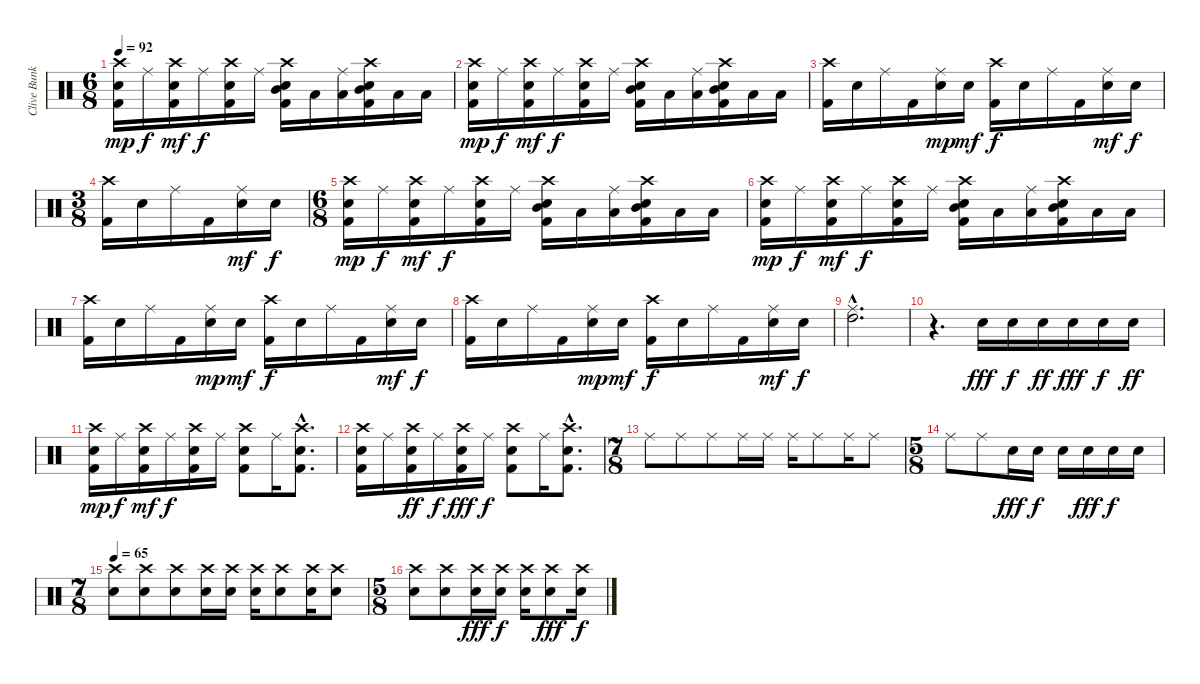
\track ("Clive Bunker (Drums)" "Clive Bunk") {instrument percussion}
\staff {score}
\articulation defaults
\ts (6 8)
\tempo 92
\clef neutral
\ks c
("Crash high (hit)" "Electric Snare (hit)" "Kick (hit) 2").16{dy mp} "Ride (middle)".16{dy f} ("Crash high (hit)" "Electric Snare (hit)" "Kick (hit) 2").16{dy mf} "Ride (middle)".16{dy f} ("Crash high (hit)" "Electric Snare (hit)" "Kick (hit) 2").16 "Ride (middle)".16 ("Crash high (hit)" "Electric Snare (hit)" "Mid Tom (hit)" "Kick (hit) 2").16 "Low Tom (hit)".16 ("Ride (middle)" "Low Tom (hit)").16 ("Crash high (hit)" "Electric Snare (hit)" "Mid Tom (hit)" "Kick (hit) 2").16 "Low Tom (hit)".16 "Low Tom (hit)".16 |
("Crash high (hit)" "Electric Snare (hit)" "Kick (hit) 2").16{dy mp} "Ride (middle)".16{dy f} ("Crash high (hit)" "Electric Snare (hit)" "Kick (hit) 2").16{dy mf} "Ride (middle)".16{dy f} ("Crash high (hit)" "Electric Snare (hit)" "Kick (hit) 2").16 "Ride (middle)".16 ("Crash high (hit)" "Electric Snare (hit)" "Mid Tom (hit)" "Kick (hit) 2").16 "Low Tom (hit)".16 ("Ride (middle)" "Low Tom (hit)").16 ("Crash high (hit)" "Electric Snare (hit)" "Mid Tom (hit)" "Kick (hit) 2").16 "Low Tom (hit)".16 "Low Tom (hit)".16 |
("Crash high (hit)" "Kick (hit) 2").16 "Electric Snare (hit)".16 "Ride (middle)".16 "Kick (hit) 2".16 ("Ride (middle)" "Electric Snare (hit)").16{dy mp} "Electric Snare (hit)".16{dy mf} ("Crash high (hit)" "Kick (hit) 2").16{dy f} "Electric Snare (hit)".16 "Ride (middle)".16 "Kick (hit) 2".16 ("Ride (middle)" "Electric Snare (hit)").16{dy mf} "Electric Snare (hit)".16{dy f} |
\ts (3 8)
("Crash high (hit)" "Kick (hit) 2").16 "Electric Snare (hit)".16 "Ride (middle)".16 "Kick (hit) 2".16 ("Ride (middle)" "Electric Snare (hit)").16{dy mf} "Electric Snare (hit)".16{dy f} |
\ts (6 8)
("Crash high (hit)" "Electric Snare (hit)" "Kick (hit) 2").16{dy mp} "Ride (middle)".16{dy f} ("Crash high (hit)" "Electric Snare (hit)" "Kick (hit) 2").16{dy mf} "Ride (middle)".16{dy f} ("Crash high (hit)" "Electric Snare (hit)" "Kick (hit) 2").16 "Ride (middle)".16 ("Crash high (hit)" "Electric Snare (hit)" "Mid Tom (hit)" "Kick (hit) 2").16 "Low Tom (hit)".16 ("Ride (middle)" "Low Tom (hit)").16 ("Crash high (hit)" "Electric Snare (hit)" "Mid Tom (hit)" "Kick (hit) 2").16 "Low Tom (hit)".16 "Low Tom (hit)".16 |
("Crash high (hit)" "Electric Snare (hit)" "Kick (hit) 2").16{dy mp} "Ride (middle)".16{dy f} ("Crash high (hit)" "Electric Snare (hit)" "Kick (hit) 2").16{dy mf} "Ride (middle)".16{dy f} ("Crash high (hit)" "Electric Snare (hit)" "Kick (hit) 2").16 "Ride (middle)".16 ("Crash high (hit)" "Electric Snare (hit)" "Mid Tom (hit)" "Kick (hit) 2").16 "Low Tom (hit)".16 ("Ride (middle)" "Low Tom (hit)").16 ("Crash high (hit)" "Electric Snare (hit)" "Mid Tom (hit)" "Kick (hit) 2").16 "Low Tom (hit)".16 "Low Tom (hit)".16 |
("Crash high (hit)" "Kick (hit) 2").16 "Electric Snare (hit)".16 "Ride (middle)".16 "Kick (hit) 2".16 ("Ride (middle)" "Electric Snare (hit)").16{dy mp} "Electric Snare (hit)".16{dy mf} ("Crash high (hit)" "Kick (hit) 2").16{dy f} "Electric Snare (hit)".16 "Ride (middle)".16 "Kick (hit) 2".16 ("Ride (middle)" "Electric Snare (hit)").16{dy mf} "Electric Snare (hit)".16{dy f} |
("Crash high (hit)" "Kick (hit) 2").16 "Electric Snare (hit)".16 "Ride (middle)".16 "Kick (hit) 2".16 ("Ride (middle)" "Electric Snare (hit)").16{dy mp} "Electric Snare (hit)".16{dy mf} ("Crash high (hit)" "Kick (hit) 2").16{dy f} "Electric Snare (hit)".16 "Ride (middle)".16 "Kick (hit) 2".16 ("Ride (middle)" "Electric Snare (hit)").16{dy mf} "Electric Snare (hit)".16{dy f} |
("Ride (middle)"{hac} "High Tom (hit)"{hac}).2{d} |
r.4{d} "Electric Snare (hit)".16{dy fff} "Electric Snare (hit)".16{dy f} "Electric Snare (hit)".16{dy ff} "Electric Snare (hit)".16{dy fff} "Electric Snare (hit)".16{dy f} "Electric Snare (hit)".16{dy ff} |
("Crash high (hit)" "Electric Snare (hit)" "Kick (hit) 2").16{dy mp} "Ride (middle)".16{dy f} ("Crash high (hit)" "Electric Snare (hit)" "Kick (hit) 2").16{dy mf} "Ride (middle)".16{dy f} ("Crash high (hit)" "Electric Snare (hit)" "Kick (hit) 2").16 "Ride (middle)".16 ("Crash high (hit)" "Electric Snare (hit)" "Kick (hit) 2").8 "Ride (middle)".16 ("Crash high (hit)"{hac} "Electric Snare (hit)"{hac} "Kick (hit) 2"{hac}).8{d} |
("Crash high (hit)" "Electric Snare (hit)" "Kick (hit) 2").16 "Ride (middle)".16 ("Crash high (hit)" "Electric Snare (hit)" "Kick (hit) 2").16{dy ff} "Ride (middle)".16{dy f} ("Crash high (hit)" "Electric Snare (hit)" "Kick (hit) 2").16{dy fff} "Ride (middle)".16{dy f} ("Crash high (hit)" "Electric Snare (hit)" "Kick (hit) 2").8 "Ride (middle)".16 ("Crash high (hit)"{hac} "Electric Snare (hit)"{hac} "Kick (hit) 2"{hac}).8{d} |
\ts (7 8)
"Ride (middle)".8 "Ride (middle)".8 "Ride (middle)".8 "Ride (middle)".16 "Ride (middle)".16 "Ride (middle)".16 "Ride (middle)".8 "Ride (middle)".16 "Ride (middle)".8 |
\ts (5 8)
"Ride (middle)".8 "Ride (middle)".8 "Electric Snare (hit)".16{dy fff} "Electric Snare (hit)".16{dy f} "Electric Snare (hit)".16 "Electric Snare (hit)".16{dy fff} "Electric Snare (hit)".16{dy f} "Electric Snare (hit)".16 |
\ts (7 8)
\tempo 65
("Crash high (hit)" "Electric Snare (hit)").8 ("Crash high (hit)" "Electric Snare (hit)").8 ("Crash high (hit)" "Electric Snare (hit)").8 ("Crash high (hit)" "Electric Snare (hit)").16 ("Crash high (hit)" "Electric Snare (hit)").16 ("Crash high (hit)" "Electric Snare (hit)").16 ("Crash high (hit)" "Electric Snare (hit)").8 ("Crash high (hit)" "Electric Snare (hit)").16 ("Crash high (hit)" "Electric Snare (hit)").8 |
\ts (5 8)
("Crash high (hit)" "Electric Snare (hit)").8 ("Crash high (hit)" "Electric Snare (hit)").8 ("Crash high (hit)" "Electric Snare (hit)").16{dy fff} ("Crash high (hit)" "Electric Snare (hit)").16{dy f} ("Crash high (hit)" "Electric Snare (hit)").16 ("Crash high (hit)" "Electric Snare (hit)").8{dy fff} ("Crash high (hit)" "Electric Snare (hit)").16{dy f}
